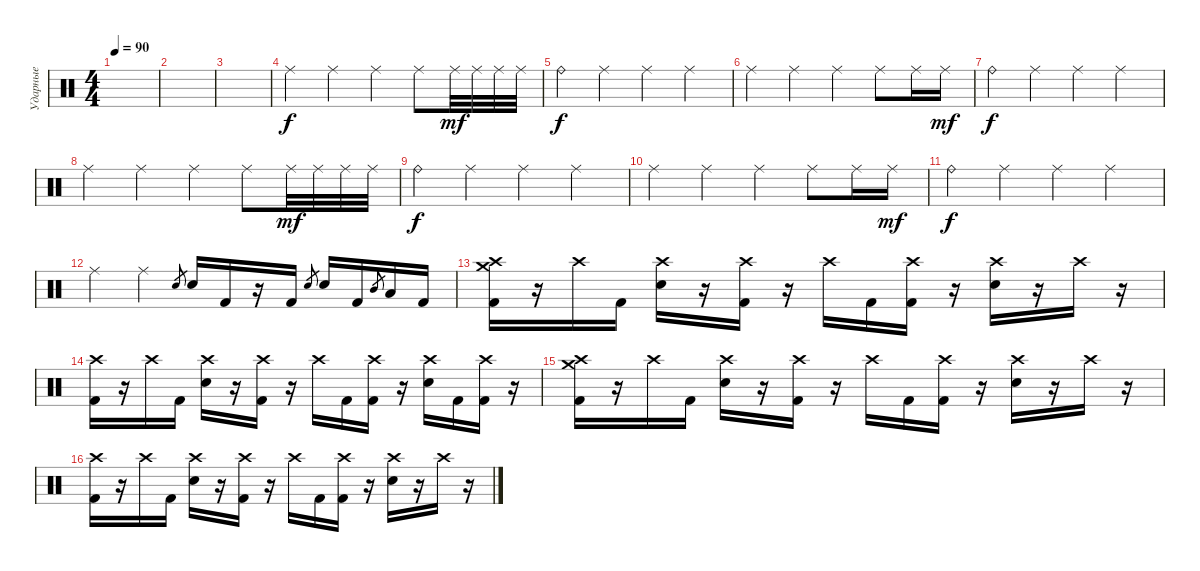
\track ("Ударные" "Ударные") {instrument percussion}
\staff {score}
\articulation defaults
\ts (4 4)
\tempo 90
\clef neutral
\ks c
|
|
|
"Ride (middle)".4 "Ride (middle)".4 "Ride (middle)".4 "Ride (middle)".8 "Ride (middle)".32{dy mf} "Ride (middle)".32 "Ride (middle)".32 "Ride (middle)".32 |
"Ride (bell)".4{dy f} "Ride (middle)".4 "Ride (middle)".4 "Ride (middle)".4 |
"Ride (middle)".4 "Ride (middle)".4 "Ride (middle)".4 "Ride (middle)".8 "Ride (middle)".16 "Ride (middle)".16{dy mf} |
"Ride (bell)".4{dy f} "Ride (middle)".4 "Ride (middle)".4 "Ride (middle)".4 |
"Ride (middle)".4 "Ride (middle)".4 "Ride (middle)".4 "Ride (middle)".8 "Ride (middle)".32{dy mf} "Ride (middle)".32 "Ride (middle)".32 "Ride (middle)".32 |
"Ride (bell)".4{dy f} "Ride (middle)".4 "Ride (middle)".4 "Ride (middle)".4 |
"Ride (middle)".4 "Ride (middle)".4 "Ride (middle)".4 "Ride (middle)".8 "Ride (middle)".16 "Ride (middle)".16{dy mf} |
"Ride (bell)".4{dy f} "Ride (middle)".4 "Ride (middle)".4 "Ride (middle)".4 |
"Ride (middle)".4 "Ride (middle)".4 "Electric Snare (hit)".8{gr} "Electric Snare (hit)".16 "Kick (hit) 2".16 r.16 "Kick (hit) 2".16 "Electric Snare (hit)".8{gr} "Electric Snare (hit)".16 "Kick (hit) 2".16 "Mid Tom (hit)".8{gr} "Low Tom (hit)".16 "Kick (hit) 2".16 |
("Crash high (hit)" "Crash medium (hit)" "Kick (hit) 2").16 r.16 "Crash high (hit)".16 "Kick (hit) 2".16 ("Crash high (hit)" "Electric Snare (hit)").16 r.16 ("Crash high (hit)" "Kick (hit) 2").16 r.16 "Crash high (hit)".16 "Kick (hit) 2".16 ("Crash high (hit)" "Kick (hit) 2").16 r.16 ("Crash high (hit)" "Electric Snare (hit)").16 r.16 "Crash high (hit)".16 r.16 |
("Crash high (hit)" "Kick (hit) 2").16 r.16 "Crash high (hit)".16 "Kick (hit) 2".16 ("Crash high (hit)" "Electric Snare (hit)").16 r.16 ("Crash high (hit)" "Kick (hit) 2").16 r.16 "Crash high (hit)".16 "Kick (hit) 2".16 ("Crash high (hit)" "Kick (hit) 2").16 r.16 ("Crash high (hit)" "Electric Snare (hit)").16 "Kick (hit) 2".16 ("Crash high (hit)" "Kick (hit) 2").16 r.16 |
("Crash high (hit)" "Crash medium (hit)" "Kick (hit) 2").16 r.16 "Crash high (hit)".16 "Kick (hit) 2".16 ("Crash high (hit)" "Electric Snare (hit)").16 r.16 ("Crash high (hit)" "Kick (hit) 2").16 r.16 "Crash high (hit)".16 "Kick (hit) 2".16 ("Crash high (hit)" "Kick (hit) 2").16 r.16 ("Crash high (hit)" "Electric Snare (hit)").16 r.16 "Crash high (hit)".16 r.16 |
("Crash high (hit)" "Kick (hit) 2").16 r.16 "Crash high (hit)".16 "Kick (hit) 2".16 ("Crash high (hit)" "Electric Snare (hit)").16 r.16 ("Crash high (hit)" "Kick (hit) 2").16 r.16 "Crash high (hit)".16 "Kick (hit) 2".16 ("Crash high (hit)" "Kick (hit) 2").16 r.16 ("Crash high (hit)" "Electric Snare (hit)").16 r.16 "Crash high (hit)".16 r.16
